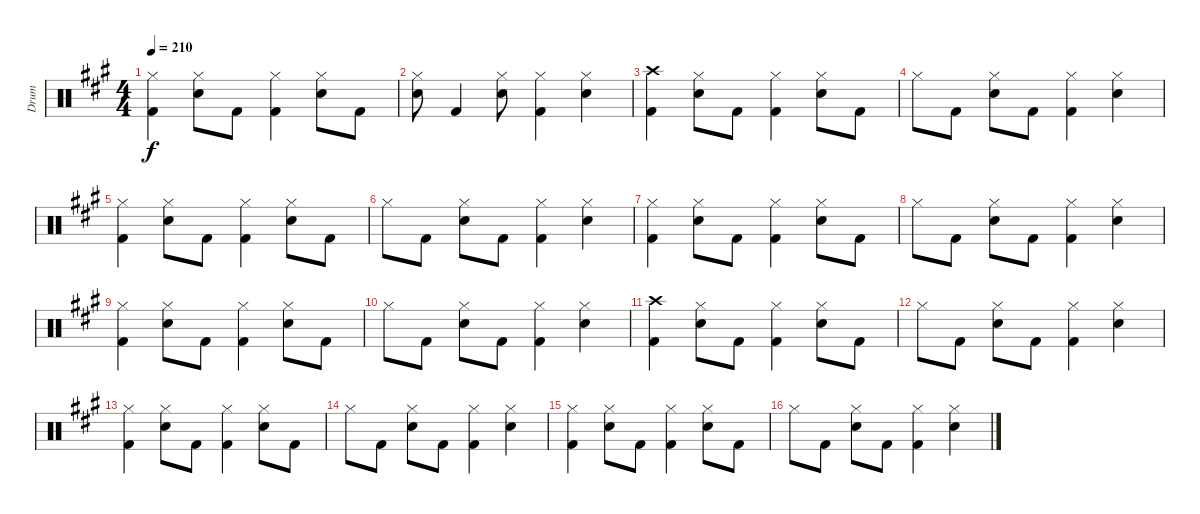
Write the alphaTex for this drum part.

\track ("Drum" "Drum") {instrument percussion}
\staff {score}
\articulation defaults
\ts (4 4)
\tempo 210
\clef neutral
\ks a
("Hi-Hat (closed)" "Kick (hit) 2").4{dy f} ("Hi-Hat (closed)" "Electric Snare (hit)").8 "Kick (hit) 2".8 ("Hi-Hat (closed)" "Kick (hit) 2").4 ("Hi-Hat (closed)" "Electric Snare (hit)").8 "Kick (hit) 2".8 |
("Hi-Hat (closed)" "Electric Snare (hit)").8 "Kick (hit) 2".4 ("Hi-Hat (closed)" "Electric Snare (hit)").8 ("Hi-Hat (closed)" "Kick (hit) 2").4 ("Hi-Hat (closed)" "Electric Snare (hit)").4 |
("Crash high (hit)" "Kick (hit) 2").4 ("Hi-Hat (closed)" "Electric Snare (hit)").8 "Kick (hit) 2".8 ("Hi-Hat (closed)" "Kick (hit) 2").4 ("Hi-Hat (closed)" "Electric Snare (hit)").8 "Kick (hit) 2".8 |
"Hi-Hat (closed)".8 "Kick (hit) 2".8 ("Hi-Hat (closed)" "Electric Snare (hit)").8 "Kick (hit) 2".8 ("Hi-Hat (closed)" "Kick (hit) 2").4 ("Hi-Hat (closed)" "Electric Snare (hit)").4 |
("Hi-Hat (closed)" "Kick (hit) 2").4 ("Hi-Hat (closed)" "Electric Snare (hit)").8 "Kick (hit) 2".8 ("Hi-Hat (closed)" "Kick (hit) 2").4 ("Hi-Hat (closed)" "Electric Snare (hit)").8 "Kick (hit) 2".8 |
"Hi-Hat (closed)".8 "Kick (hit) 2".8 ("Hi-Hat (closed)" "Electric Snare (hit)").8 "Kick (hit) 2".8 ("Hi-Hat (closed)" "Kick (hit) 2").4 ("Hi-Hat (closed)" "Electric Snare (hit)").4 |
("Hi-Hat (closed)" "Kick (hit) 2").4 ("Hi-Hat (closed)" "Electric Snare (hit)").8 "Kick (hit) 2".8 ("Hi-Hat (closed)" "Kick (hit) 2").4 ("Hi-Hat (closed)" "Electric Snare (hit)").8 "Kick (hit) 2".8 |
"Hi-Hat (closed)".8 "Kick (hit) 2".8 ("Hi-Hat (closed)" "Electric Snare (hit)").8 "Kick (hit) 2".8 ("Hi-Hat (closed)" "Kick (hit) 2").4 ("Hi-Hat (closed)" "Electric Snare (hit)").4 |
("Hi-Hat (closed)" "Kick (hit) 2").4 ("Hi-Hat (closed)" "Electric Snare (hit)").8 "Kick (hit) 2".8 ("Hi-Hat (closed)" "Kick (hit) 2").4 ("Hi-Hat (closed)" "Electric Snare (hit)").8 "Kick (hit) 2".8 |
"Hi-Hat (closed)".8 "Kick (hit) 2".8 ("Hi-Hat (closed)" "Electric Snare (hit)").8 "Kick (hit) 2".8 ("Hi-Hat (closed)" "Kick (hit) 2").4 ("Hi-Hat (closed)" "Electric Snare (hit)").4 |
("Crash high (hit)" "Kick (hit) 2").4 ("Hi-Hat (closed)" "Electric Snare (hit)").8 "Kick (hit) 2".8 ("Hi-Hat (closed)" "Kick (hit) 2").4 ("Hi-Hat (closed)" "Electric Snare (hit)").8 "Kick (hit) 2".8 |
"Hi-Hat (closed)".8 "Kick (hit) 2".8 ("Hi-Hat (closed)" "Electric Snare (hit)").8 "Kick (hit) 2".8 ("Hi-Hat (closed)" "Kick (hit) 2").4 ("Hi-Hat (closed)" "Electric Snare (hit)").4 |
("Hi-Hat (closed)" "Kick (hit) 2").4 ("Hi-Hat (closed)" "Electric Snare (hit)").8 "Kick (hit) 2".8 ("Hi-Hat (closed)" "Kick (hit) 2").4 ("Hi-Hat (closed)" "Electric Snare (hit)").8 "Kick (hit) 2".8 |
"Hi-Hat (closed)".8 "Kick (hit) 2".8 ("Hi-Hat (closed)" "Electric Snare (hit)").8 "Kick (hit) 2".8 ("Hi-Hat (closed)" "Kick (hit) 2").4 ("Hi-Hat (closed)" "Electric Snare (hit)").4 |
("Hi-Hat (closed)" "Kick (hit) 2").4 ("Hi-Hat (closed)" "Electric Snare (hit)").8 "Kick (hit) 2".8 ("Hi-Hat (closed)" "Kick (hit) 2").4 ("Hi-Hat (closed)" "Electric Snare (hit)").8 "Kick (hit) 2".8 |
"Hi-Hat (closed)".8 "Kick (hit) 2".8 ("Hi-Hat (closed)" "Electric Snare (hit)").8 "Kick (hit) 2".8 ("Hi-Hat (closed)" "Kick (hit) 2").4 ("Hi-Hat (closed)" "Electric Snare (hit)").4
